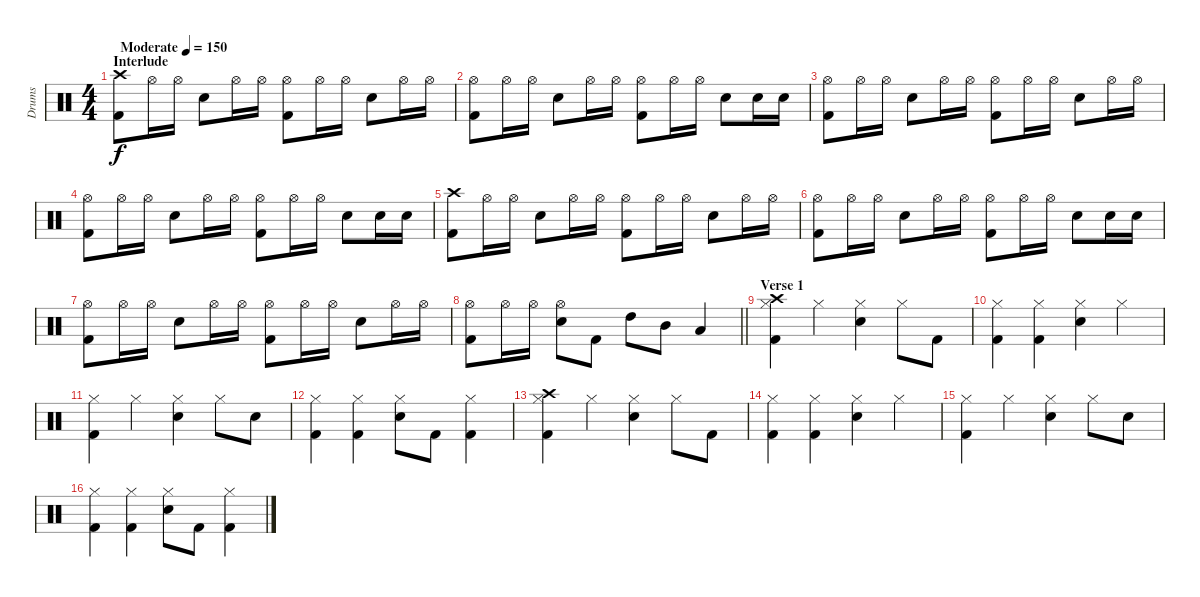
\track ("Drums" "Drums") {instrument percussion}
\staff {score}
\articulation defaults
\ts (4 4)
\section ("" "Interlude")
\tempo (150 "Moderate")
\clef neutral
\ks c
("Crash high (hit)" "Kick (hit) 2").8{dy f} "Hi-Hat (open)".16 "Hi-Hat (open)".16 "Snare (hit) 2".8 "Hi-Hat (open)".16 "Hi-Hat (open)".16 ("Hi-Hat (open)" "Kick (hit) 2").8 "Hi-Hat (open)".16 "Hi-Hat (open)".16 "Snare (hit) 2".8 "Hi-Hat (open)".16 "Hi-Hat (open)".16 |
("Hi-Hat (open)" "Kick (hit) 2").8 "Hi-Hat (open)".16 "Hi-Hat (open)".16 "Snare (hit) 2".8 "Hi-Hat (open)".16 "Hi-Hat (open)".16 ("Hi-Hat (open)" "Kick (hit) 2").8 "Hi-Hat (open)".16 "Hi-Hat (open)".16 "Snare (hit) 2".8 "Snare (hit) 2".16 "Snare (hit) 2".16 |
("Hi-Hat (open)" "Kick (hit) 2").8 "Hi-Hat (open)".16 "Hi-Hat (open)".16 "Snare (hit) 2".8 "Hi-Hat (open)".16 "Hi-Hat (open)".16 ("Hi-Hat (open)" "Kick (hit) 2").8 "Hi-Hat (open)".16 "Hi-Hat (open)".16 "Snare (hit) 2".8 "Hi-Hat (open)".16 "Hi-Hat (open)".16 |
("Hi-Hat (open)" "Kick (hit) 2").8 "Hi-Hat (open)".16 "Hi-Hat (open)".16 "Snare (hit) 2".8 "Hi-Hat (open)".16 "Hi-Hat (open)".16 ("Hi-Hat (open)" "Kick (hit) 2").8 "Hi-Hat (open)".16 "Hi-Hat (open)".16 "Snare (hit) 2".8 "Snare (hit) 2".16 "Snare (hit) 2".16 |
("Crash high (hit)" "Kick (hit) 2").8 "Hi-Hat (open)".16 "Hi-Hat (open)".16 "Snare (hit) 2".8 "Hi-Hat (open)".16 "Hi-Hat (open)".16 ("Hi-Hat (open)" "Kick (hit) 2").8 "Hi-Hat (open)".16 "Hi-Hat (open)".16 "Snare (hit) 2".8 "Hi-Hat (open)".16 "Hi-Hat (open)".16 |
("Hi-Hat (open)" "Kick (hit) 2").8 "Hi-Hat (open)".16 "Hi-Hat (open)".16 "Snare (hit) 2".8 "Hi-Hat (open)".16 "Hi-Hat (open)".16 ("Hi-Hat (open)" "Kick (hit) 2").8 "Hi-Hat (open)".16 "Hi-Hat (open)".16 "Snare (hit) 2".8 "Snare (hit) 2".16 "Snare (hit) 2".16 |
("Hi-Hat (open)" "Kick (hit) 2").8 "Hi-Hat (open)".16 "Hi-Hat (open)".16 "Snare (hit) 2".8 "Hi-Hat (open)".16 "Hi-Hat (open)".16 ("Hi-Hat (open)" "Kick (hit) 2").8 "Hi-Hat (open)".16 "Hi-Hat (open)".16 "Snare (hit) 2".8 "Hi-Hat (open)".16 "Hi-Hat (open)".16 |
\barLineRight lightlight
("Hi-Hat (open)" "Kick (hit) 2").8 "Hi-Hat (open)".16 "Hi-Hat (open)".16 ("Hi-Hat (open)" "Snare (hit) 2").8 "Kick (hit) 2".8 "High Tom (hit)".8 "Mid Tom (hit)".8 "Low Tom (hit)".4 |
\section ("" "Verse 1")
("Crash high (hit)" "Hi-Hat (closed)" "Kick (hit) 2").4 "Hi-Hat (closed)".4 ("Hi-Hat (closed)" "Snare (hit) 2").4 "Hi-Hat (closed)".8 "Kick (hit) 2".8 |
("Hi-Hat (closed)" "Kick (hit) 2").4 ("Hi-Hat (closed)" "Kick (hit) 2").4 ("Hi-Hat (closed)" "Snare (hit) 2").4 "Hi-Hat (closed)".4 |
("Hi-Hat (closed)" "Kick (hit) 2").4 "Hi-Hat (closed)".4 ("Hi-Hat (closed)" "Snare (hit) 2").4 "Hi-Hat (closed)".8 "Snare (hit) 2".8 |
("Hi-Hat (closed)" "Kick (hit) 2").4 ("Hi-Hat (closed)" "Kick (hit) 2").4 ("Hi-Hat (closed)" "Snare (hit) 2").8 "Kick (hit) 2".8 ("Hi-Hat (closed)" "Kick (hit) 2").4 |
("Crash high (hit)" "Hi-Hat (closed)" "Kick (hit) 2").4 "Hi-Hat (closed)".4 ("Hi-Hat (closed)" "Snare (hit) 2").4 "Hi-Hat (closed)".8 "Kick (hit) 2".8 |
("Hi-Hat (closed)" "Kick (hit) 2").4 ("Hi-Hat (closed)" "Kick (hit) 2").4 ("Hi-Hat (closed)" "Snare (hit) 2").4 "Hi-Hat (closed)".4 |
("Hi-Hat (closed)" "Kick (hit) 2").4 "Hi-Hat (closed)".4 ("Hi-Hat (closed)" "Snare (hit) 2").4 "Hi-Hat (closed)".8 "Snare (hit) 2".8 |
("Hi-Hat (closed)" "Kick (hit) 2").4 ("Hi-Hat (closed)" "Kick (hit) 2").4 ("Hi-Hat (closed)" "Snare (hit) 2").8 "Kick (hit) 2".8 ("Hi-Hat (closed)" "Kick (hit) 2").4
